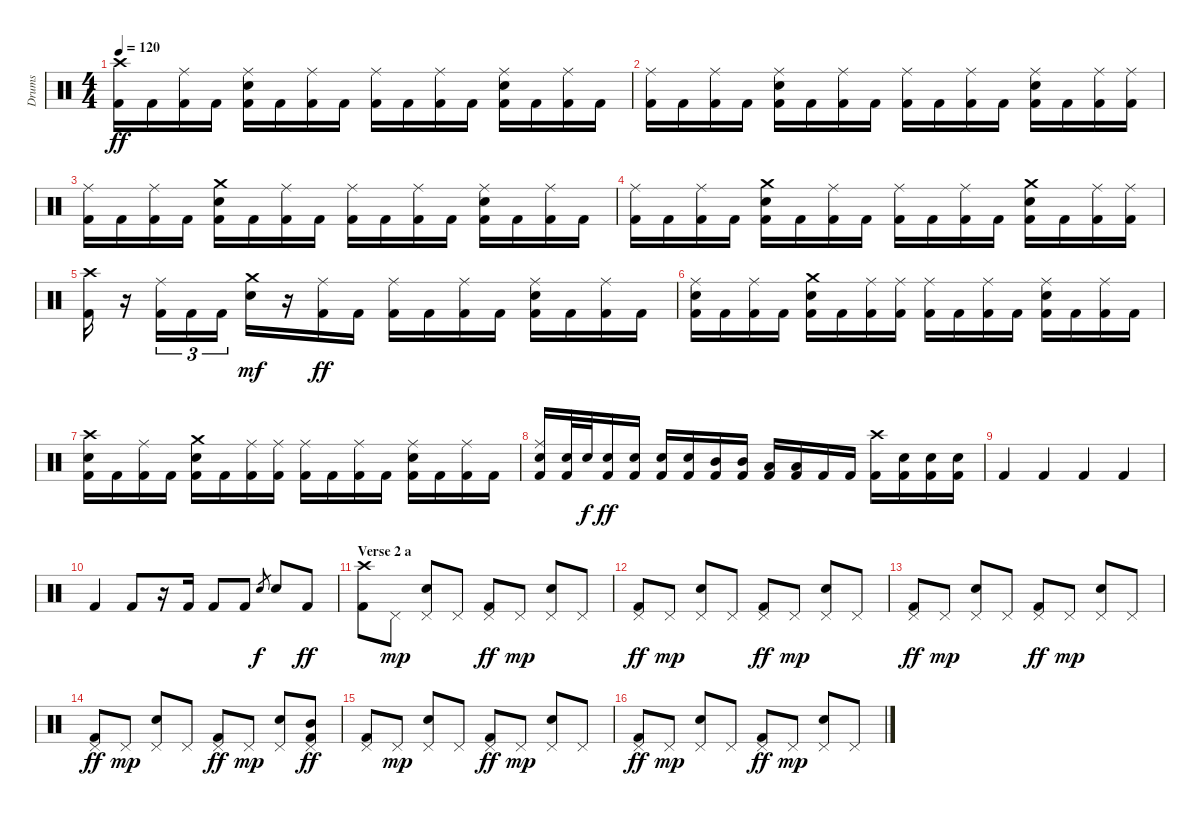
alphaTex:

\track ("Drums" "Drums") {instrument percussion}
\staff {score}
\articulation defaults
\ts (4 4)
\tempo 120
\clef neutral
\ks c
("Crash high (hit)" "Kick (hit) 2").16{dy ff} "Kick (hit) 2".16 ("Ride (middle)" "Kick (hit) 2").16 "Kick (hit) 2".16 ("Ride (middle)" "Electric Snare (hit)" "Kick (hit) 2").16 "Kick (hit) 2".16 ("Ride (middle)" "Kick (hit) 2").16 "Kick (hit) 2".16 ("Ride (middle)" "Kick (hit) 2").16 "Kick (hit) 2".16 ("Ride (middle)" "Kick (hit) 2").16 "Kick (hit) 2".16 ("Ride (middle)" "Electric Snare (hit)" "Kick (hit) 2").16 "Kick (hit) 2".16 ("Ride (middle)" "Kick (hit) 2").16 "Kick (hit) 2".16 |
("Ride (middle)" "Kick (hit) 2").16 "Kick (hit) 2".16 ("Ride (middle)" "Kick (hit) 2").16 "Kick (hit) 2".16 ("Ride (middle)" "Electric Snare (hit)" "Kick (hit) 2").16 "Kick (hit) 2".16 ("Ride (middle)" "Kick (hit) 2").16 "Kick (hit) 2".16 ("Ride (middle)" "Kick (hit) 2").16 "Kick (hit) 2".16 ("Ride (middle)" "Kick (hit) 2").16 "Kick (hit) 2".16 ("Ride (middle)" "Electric Snare (hit)" "Kick (hit) 2").16 "Kick (hit) 2".16 ("Ride (middle)" "Kick (hit) 2").16 ("Ride (middle)" "Kick (hit) 2").16 |
("Ride (middle)" "Kick (hit) 2").16 "Kick (hit) 2".16 ("Ride (middle)" "Kick (hit) 2").16 "Kick (hit) 2".16 ("Crash medium (hit)" "Electric Snare (hit)" "Kick (hit) 2").16 "Kick (hit) 2".16 ("Ride (middle)" "Kick (hit) 2").16 "Kick (hit) 2".16 ("Ride (middle)" "Kick (hit) 2").16 "Kick (hit) 2".16 ("Ride (middle)" "Kick (hit) 2").16 "Kick (hit) 2".16 ("Ride (middle)" "Electric Snare (hit)" "Kick (hit) 2").16 "Kick (hit) 2".16 ("Ride (middle)" "Kick (hit) 2").16 "Kick (hit) 2".16 |
("Ride (middle)" "Kick (hit) 2").16 "Kick (hit) 2".16 ("Ride (middle)" "Kick (hit) 2").16 "Kick (hit) 2".16 ("Crash medium (hit)" "Electric Snare (hit)" "Kick (hit) 2").16 "Kick (hit) 2".16 ("Ride (middle)" "Kick (hit) 2").16 "Kick (hit) 2".16 ("Ride (middle)" "Kick (hit) 2").16 "Kick (hit) 2".16 ("Ride (middle)" "Kick (hit) 2").16 "Kick (hit) 2".16 ("Crash medium (hit)" "Electric Snare (hit)" "Kick (hit) 2").16 "Kick (hit) 2".16 ("Ride (middle)" "Kick (hit) 2").16 ("Ride (middle)" "Kick (hit) 2").16 |
("Crash high (hit)" "Kick (hit) 2").16 r.16 ("Ride (middle)" "Kick (hit) 2").16{tu (3 2)} "Kick (hit) 2".16{tu (3 2)} "Kick (hit) 2".16{tu (3 2)} ("Crash medium (hit)" "Electric Snare (hit)").16{dy mf} r.16 ("Ride (middle)" "Kick (hit) 2").16{dy ff} "Kick (hit) 2".16 ("Ride (middle)" "Kick (hit) 2").16 "Kick (hit) 2".16 ("Ride (middle)" "Kick (hit) 2").16 "Kick (hit) 2".16 ("Ride (middle)" "Electric Snare (hit)" "Kick (hit) 2").16 "Kick (hit) 2".16 ("Ride (middle)" "Kick (hit) 2").16 "Kick (hit) 2".16 |
("Ride (middle)" "Electric Snare (hit)" "Kick (hit) 2").16 "Kick (hit) 2".16 ("Ride (middle)" "Kick (hit) 2").16 "Kick (hit) 2".16 ("Crash medium (hit)" "Electric Snare (hit)" "Kick (hit) 2").16 "Kick (hit) 2".16 ("Ride (middle)" "Kick (hit) 2").16 ("Ride (middle)" "Kick (hit) 2").16 ("Ride (middle)" "Kick (hit) 2").16 "Kick (hit) 2".16 ("Ride (middle)" "Kick (hit) 2").16 "Kick (hit) 2".16 ("Ride (middle)" "Electric Snare (hit)" "Kick (hit) 2").16 "Kick (hit) 2".16 ("Ride (middle)" "Kick (hit) 2").16 "Kick (hit) 2".16 |
("Crash high (hit)" "Electric Snare (hit)" "Kick (hit) 2").16 "Kick (hit) 2".16 ("Ride (middle)" "Kick (hit) 2").16 "Kick (hit) 2".16 ("Crash medium (hit)" "Electric Snare (hit)" "Kick (hit) 2").16 "Kick (hit) 2".16 ("Ride (middle)" "Kick (hit) 2").16 ("Ride (middle)" "Kick (hit) 2").16 ("Ride (middle)" "Kick (hit) 2").16 "Kick (hit) 2".16 ("Ride (middle)" "Kick (hit) 2").16 "Kick (hit) 2".16 ("Ride (middle)" "Electric Snare (hit)" "Kick (hit) 2").16 "Kick (hit) 2".16 ("Ride (middle)" "Kick (hit) 2").16 "Kick (hit) 2".16 |
("Ride (middle)" "Electric Snare (hit)" "Kick (hit) 2").16 ("Electric Snare (hit)" "Kick (hit) 2").32 "Electric Snare (hit)".32{dy f} ("Electric Snare (hit)" "Kick (hit) 2").16{dy ff} ("Electric Snare (hit)" "Kick (hit) 2").16 ("Electric Snare (hit)" "Kick (hit) 2").16 ("Electric Snare (hit)" "Kick (hit) 2").16 ("Mid Tom (hit)" "Kick (hit) 2").16 ("Mid Tom (hit)" "Kick (hit) 2").16 ("Low Tom (hit)" "Kick (hit) 2").16 ("Low Tom (hit)" "Kick (hit) 2").16 "Kick (hit) 2".16 "Kick (hit) 2".16 ("Crash high (hit)" "Kick (hit) 2").16 ("Electric Snare (hit)" "Kick (hit) 2").16 ("Electric Snare (hit)" "Kick (hit) 2").16 ("Electric Snare (hit)" "Kick (hit) 2").16 |
\section ("" "")
"Kick (hit) 2".4 "Kick (hit) 2".4 "Kick (hit) 2".4 "Kick (hit) 2".4 |
"Kick (hit) 2".4 "Kick (hit) 2".8 r.16 "Kick (hit) 2".16 "Kick (hit) 2".8 "Kick (hit) 2".8 "Electric Snare (hit)".8{gr dy f} "Electric Snare (hit)".8 "Kick (hit) 2".8{dy ff} |
\section ("" "Verse 2 a")
("Crash high (hit)" "Kick (hit) 2").8 "Pedal Hi-Hat (hit)".8{dy mp} ("Pedal Hi-Hat (hit)" "Electric Snare (hit)").8 "Pedal Hi-Hat (hit)".8 ("Pedal Hi-Hat (hit)" "Kick (hit) 2").8{dy ff} "Pedal Hi-Hat (hit)".8{dy mp} ("Pedal Hi-Hat (hit)" "Electric Snare (hit)").8 "Pedal Hi-Hat (hit)".8 |
("Pedal Hi-Hat (hit)" "Kick (hit) 2").8{dy ff} "Pedal Hi-Hat (hit)".8{dy mp} ("Pedal Hi-Hat (hit)" "Electric Snare (hit)").8 "Pedal Hi-Hat (hit)".8 ("Pedal Hi-Hat (hit)" "Kick (hit) 2").8{dy ff} "Pedal Hi-Hat (hit)".8{dy mp} ("Pedal Hi-Hat (hit)" "Electric Snare (hit)").8 "Pedal Hi-Hat (hit)".8 |
("Pedal Hi-Hat (hit)" "Kick (hit) 2").8{dy ff} "Pedal Hi-Hat (hit)".8{dy mp} ("Pedal Hi-Hat (hit)" "Electric Snare (hit)").8 "Pedal Hi-Hat (hit)".8 ("Pedal Hi-Hat (hit)" "Kick (hit) 2").8{dy ff} "Pedal Hi-Hat (hit)".8{dy mp} ("Pedal Hi-Hat (hit)" "Electric Snare (hit)").8 "Pedal Hi-Hat (hit)".8 |
("Pedal Hi-Hat (hit)" "Kick (hit) 2").8{dy ff} "Pedal Hi-Hat (hit)".8{dy mp} ("Pedal Hi-Hat (hit)" "Electric Snare (hit)").8 "Pedal Hi-Hat (hit)".8 ("Pedal Hi-Hat (hit)" "Kick (hit) 2").8{dy ff} "Pedal Hi-Hat (hit)".8{dy mp} ("Pedal Hi-Hat (hit)" "Electric Snare (hit)").8 ("Pedal Hi-Hat (hit)" "Mid Tom (hit)" "Kick (hit) 2").8{dy ff} |
("Pedal Hi-Hat (hit)" "Kick (hit) 2").8 "Pedal Hi-Hat (hit)".8{dy mp} ("Pedal Hi-Hat (hit)" "Electric Snare (hit)").8 "Pedal Hi-Hat (hit)".8 ("Pedal Hi-Hat (hit)" "Kick (hit) 2").8{dy ff} "Pedal Hi-Hat (hit)".8{dy mp} ("Pedal Hi-Hat (hit)" "Electric Snare (hit)").8 "Pedal Hi-Hat (hit)".8 |
("Pedal Hi-Hat (hit)" "Kick (hit) 2").8{dy ff} "Pedal Hi-Hat (hit)".8{dy mp} ("Pedal Hi-Hat (hit)" "Electric Snare (hit)").8 "Pedal Hi-Hat (hit)".8 ("Pedal Hi-Hat (hit)" "Kick (hit) 2").8{dy ff} "Pedal Hi-Hat (hit)".8{dy mp} ("Pedal Hi-Hat (hit)" "Electric Snare (hit)").8 "Pedal Hi-Hat (hit)".8
